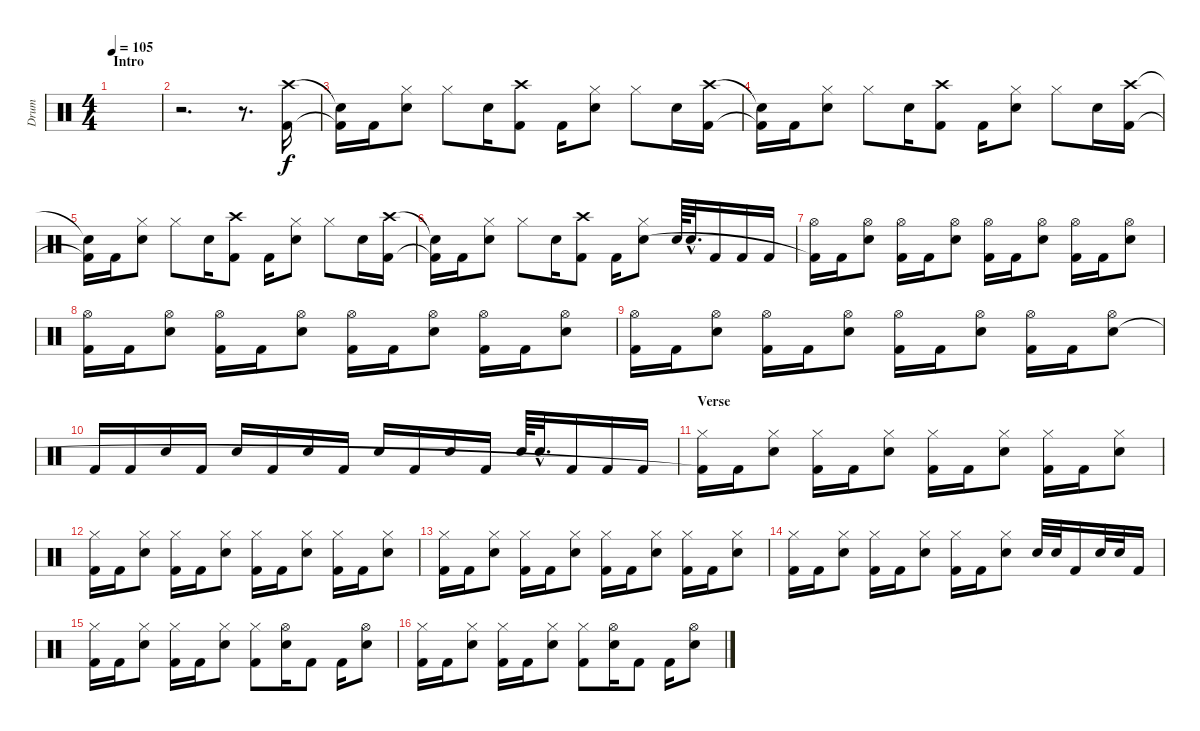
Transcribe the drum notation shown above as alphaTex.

\track ("Drum" "Drum") {instrument percussion}
\staff {score}
\articulation defaults
\ts (4 4)
\section ("" "Intro")
\tempo 105
\clef neutral
\ks c
|
r.2{d} r.8{d} ("Crash high (hit)" "Kick (hit) 2").16 |
("Snare (hit)"{t} "Kick (hit) 2"{t}).16 "Kick (hit) 2".16 ("Hi-Hat (closed)" "Electric Snare (hit)").8 "Hi-Hat (closed)".8 "Electric Snare (hit)".16 ("Crash high (hit)" "Kick (hit) 2").8 "Kick (hit) 2".16 ("Hi-Hat (closed)" "Electric Snare (hit)").8 "Hi-Hat (closed)".8 "Electric Snare (hit)".16 ("Crash high (hit)" "Kick (hit) 2").16 |
("Snare (hit)"{t} "Kick (hit) 2"{t}).16 "Kick (hit) 2".16 ("Hi-Hat (closed)" "Electric Snare (hit)").8 "Hi-Hat (closed)".8 "Electric Snare (hit)".16 ("Crash high (hit)" "Kick (hit) 2").8 "Kick (hit) 2".16 ("Hi-Hat (closed)" "Electric Snare (hit)").8 "Hi-Hat (closed)".8 "Electric Snare (hit)".16 ("Crash high (hit)" "Kick (hit) 2").16 |
("Snare (hit)"{t} "Kick (hit) 2"{t}).16 "Kick (hit) 2".16 ("Hi-Hat (closed)" "Electric Snare (hit)").8 "Hi-Hat (closed)".8 "Electric Snare (hit)".16 ("Crash high (hit)" "Kick (hit) 2").8 "Kick (hit) 2".16 ("Hi-Hat (closed)" "Electric Snare (hit)").8 "Hi-Hat (closed)".8 "Electric Snare (hit)".16 ("Crash high (hit)" "Kick (hit) 2").16 |
("Snare (hit)"{t} "Kick (hit) 2"{t}).16 "Kick (hit) 2".16 ("Hi-Hat (closed)" "Electric Snare (hit)").8 "Hi-Hat (closed)".8 "Electric Snare (hit)".16 ("Crash high (hit)" "Kick (hit) 2").8 "Kick (hit) 2".16 ("Hi-Hat (closed)" "Electric Snare (hit)").8 "Electric Snare (hit)".64 "Electric Snare (hit)"{hac}.32{d} "Kick (hit) 2".16 "Kick (hit) 2".16 "Kick (hit) 2".16 |
("Hi-Hat (open)" "Kick (hit) 2"{t}).16 "Kick (hit) 2".16 ("Hi-Hat (open)" "Electric Snare (hit)").8 ("Hi-Hat (open)" "Kick (hit) 2").16 "Kick (hit) 2".16 ("Hi-Hat (open)" "Electric Snare (hit)").8 ("Hi-Hat (open)" "Kick (hit) 2").16 "Kick (hit) 2".16 ("Hi-Hat (open)" "Electric Snare (hit)").8 ("Hi-Hat (open)" "Kick (hit) 2").16 "Kick (hit) 2".16 ("Hi-Hat (open)" "Electric Snare (hit)").8 |
("Hi-Hat (open)" "Kick (hit) 2").16 "Kick (hit) 2".16 ("Hi-Hat (open)" "Electric Snare (hit)").8 ("Hi-Hat (open)" "Kick (hit) 2").16 "Kick (hit) 2".16 ("Hi-Hat (open)" "Electric Snare (hit)").8 ("Hi-Hat (open)" "Kick (hit) 2").16 "Kick (hit) 2".16 ("Hi-Hat (open)" "Electric Snare (hit)").8 ("Hi-Hat (open)" "Kick (hit) 2").16 "Kick (hit) 2".16 ("Hi-Hat (open)" "Electric Snare (hit)").8 |
("Hi-Hat (open)" "Kick (hit) 2").16 "Kick (hit) 2".16 ("Hi-Hat (open)" "Electric Snare (hit)").8 ("Hi-Hat (open)" "Kick (hit) 2").16 "Kick (hit) 2".16 ("Hi-Hat (open)" "Electric Snare (hit)").8 ("Hi-Hat (open)" "Kick (hit) 2").16 "Kick (hit) 2".16 ("Hi-Hat (open)" "Electric Snare (hit)").8 ("Hi-Hat (open)" "Kick (hit) 2").16 "Kick (hit) 2".16 ("Hi-Hat (open)" "Electric Snare (hit)").8 |
"Kick (hit) 2".16 "Kick (hit) 2".16 "Electric Snare (hit)".16 "Kick (hit) 2".16 "Electric Snare (hit)".16 "Kick (hit) 2".16 "Electric Snare (hit)".16 "Kick (hit) 2".16 "Electric Snare (hit)".16 "Kick (hit) 2".16 "Electric Snare (hit)".16 "Kick (hit) 2".16 "Electric Snare (hit)".64 "Electric Snare (hit)"{hac}.32{d} "Kick (hit) 2".16 "Kick (hit) 2".16 "Kick (hit) 2".16 |
\section ("" "Verse")
("Hi-Hat (closed)" "Kick (hit) 2"{t}).16 "Kick (hit) 2".16 ("Hi-Hat (closed)" "Electric Snare (hit)").8 ("Hi-Hat (closed)" "Kick (hit) 2").16 "Kick (hit) 2".16 ("Hi-Hat (closed)" "Electric Snare (hit)").8 ("Hi-Hat (closed)" "Kick (hit) 2").16 "Kick (hit) 2".16 ("Hi-Hat (closed)" "Electric Snare (hit)").8 ("Hi-Hat (closed)" "Kick (hit) 2").16 "Kick (hit) 2".16 ("Hi-Hat (closed)" "Electric Snare (hit)").8 |
("Hi-Hat (closed)" "Kick (hit) 2").16 "Kick (hit) 2".16 ("Hi-Hat (closed)" "Electric Snare (hit)").8 ("Hi-Hat (closed)" "Kick (hit) 2").16 "Kick (hit) 2".16 ("Hi-Hat (closed)" "Electric Snare (hit)").8 ("Hi-Hat (closed)" "Kick (hit) 2").16 "Kick (hit) 2".16 ("Hi-Hat (closed)" "Electric Snare (hit)").8 ("Hi-Hat (closed)" "Kick (hit) 2").16 "Kick (hit) 2".16 ("Hi-Hat (closed)" "Electric Snare (hit)").8 |
("Hi-Hat (closed)" "Kick (hit) 2").16 "Kick (hit) 2".16 ("Hi-Hat (closed)" "Electric Snare (hit)").8 ("Hi-Hat (closed)" "Kick (hit) 2").16 "Kick (hit) 2".16 ("Hi-Hat (closed)" "Electric Snare (hit)").8 ("Hi-Hat (closed)" "Kick (hit) 2").16 "Kick (hit) 2".16 ("Hi-Hat (closed)" "Electric Snare (hit)").8 ("Hi-Hat (closed)" "Kick (hit) 2").16 "Kick (hit) 2".16 ("Hi-Hat (closed)" "Electric Snare (hit)").8 |
("Hi-Hat (closed)" "Kick (hit) 2").16 "Kick (hit) 2".16 ("Hi-Hat (closed)" "Electric Snare (hit)").8 ("Hi-Hat (closed)" "Kick (hit) 2").16 "Kick (hit) 2".16 ("Hi-Hat (closed)" "Electric Snare (hit)").8 ("Hi-Hat (closed)" "Kick (hit) 2").16 "Kick (hit) 2".16 ("Hi-Hat (closed)" "Electric Snare (hit)").8 "Electric Snare (hit)".32 "Electric Snare (hit)".32 "Kick (hit) 2".16 "Electric Snare (hit)".32 "Electric Snare (hit)".32 "Kick (hit) 2".16 |
("Hi-Hat (closed)" "Kick (hit) 2").16 "Kick (hit) 2".16 ("Hi-Hat (closed)" "Electric Snare (hit)").8 ("Hi-Hat (closed)" "Kick (hit) 2").16 "Kick (hit) 2".16 ("Hi-Hat (closed)" "Electric Snare (hit)").8 ("Hi-Hat (closed)" "Kick (hit) 2").8 ("Hi-Hat (open)" "Electric Snare (hit)").16 "Kick (hit) 2".8 "Kick (hit) 2".16 ("Hi-Hat (open)" "Electric Snare (hit)").8 |
("Hi-Hat (closed)" "Kick (hit) 2").16 "Kick (hit) 2".16 ("Hi-Hat (closed)" "Electric Snare (hit)").8 ("Hi-Hat (closed)" "Kick (hit) 2").16 "Kick (hit) 2".16 ("Hi-Hat (closed)" "Electric Snare (hit)").8 ("Hi-Hat (closed)" "Kick (hit) 2").8 ("Hi-Hat (open)" "Electric Snare (hit)").16 "Kick (hit) 2".8 "Kick (hit) 2".16 ("Hi-Hat (open)" "Electric Snare (hit)").8
